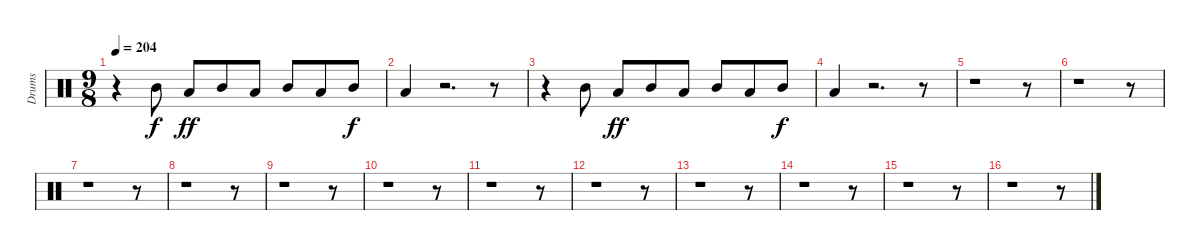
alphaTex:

\track ("Drums" "Drums") {instrument percussion}
\staff {score}
\articulation defaults
\ts (9 8)
\tempo 204
\clef neutral
\ks c
r.4{dy f} "Mid Tom (hit)".8 "Low Tom (hit)".8{dy ff} "Mid Tom (hit)".8 "Low Tom (hit)".8 "Mid Tom (hit)".8 "Low Tom (hit)".8 "Mid Tom (hit)".8{dy f} |
"Low Tom (hit)".4 r.2{d} r.8 |
r.4 "Mid Tom (hit)".8 "Low Tom (hit)".8{dy ff} "Mid Tom (hit)".8 "Low Tom (hit)".8 "Mid Tom (hit)".8 "Low Tom (hit)".8 "Mid Tom (hit)".8{dy f} |
"Low Tom (hit)".4 r.2{d} r.8 |
r.1 r.8 |
r.1 r.8 |
r.1 r.8 |
r.1 r.8 |
r.1 r.8 |
r.1 r.8 |
r.1 r.8 |
r.1 r.8 |
r.1 r.8 |
r.1 r.8 |
r.1 r.8 |
r.1 r.8
